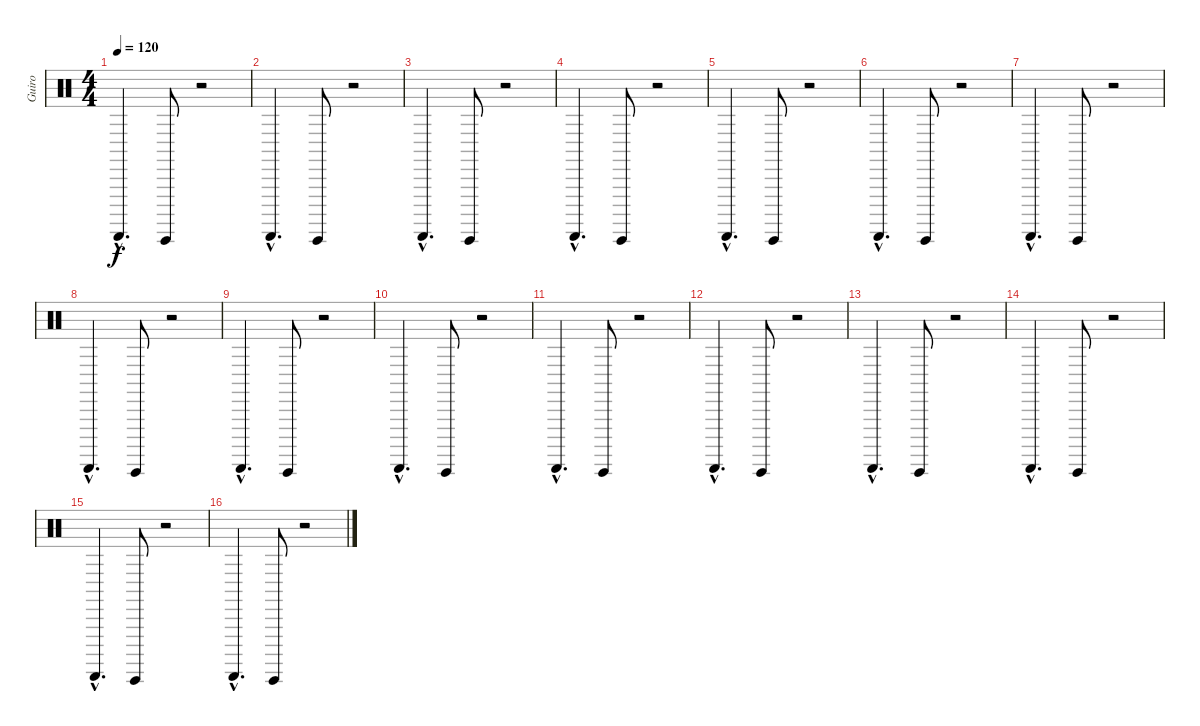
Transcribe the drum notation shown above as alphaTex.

\track ("Guiro" "Guiro") {instrument percussion}
\staff {score}
\articulation defaults
\ts (4 4)
\tempo 120
\clef neutral
\ks c "Guiro (scrap-return)"{hac}.4{d dy f} "Guiro (hit)".8
r.2 |
"Guiro (scrap-return)"{hac}.4{d} "Guiro (hit)".8 r.2 |
"Guiro (scrap-return)"{hac}.4{d} "Guiro (hit)".8 r.2 |
"Guiro (scrap-return)"{hac}.4{d} "Guiro (hit)".8 r.2 |
"Guiro (scrap-return)"{hac}.4{d} "Guiro (hit)".8 r.2 |
"Guiro (scrap-return)"{hac}.4{d} "Guiro (hit)".8 r.2 |
"Guiro (scrap-return)"{hac}.4{d} "Guiro (hit)".8 r.2 |
"Guiro (scrap-return)"{hac}.4{d} "Guiro (hit)".8 r.2 |
"Guiro (scrap-return)"{hac}.4{d} "Guiro (hit)".8 r.2 |
"Guiro (scrap-return)"{hac}.4{d} "Guiro (hit)".8 r.2 |
"Guiro (scrap-return)"{hac}.4{d} "Guiro (hit)".8 r.2 |
"Guiro (scrap-return)"{hac}.4{d} "Guiro (hit)".8 r.2 |
"Guiro (scrap-return)"{hac}.4{d} "Guiro (hit)".8 r.2 |
"Guiro (scrap-return)"{hac}.4{d} "Guiro (hit)".8 r.2 |
"Guiro (scrap-return)"{hac}.4{d} "Guiro (hit)".8 r.2 |
"Guiro (scrap-return)"{hac}.4{d} "Guiro (hit)".8 r.2
